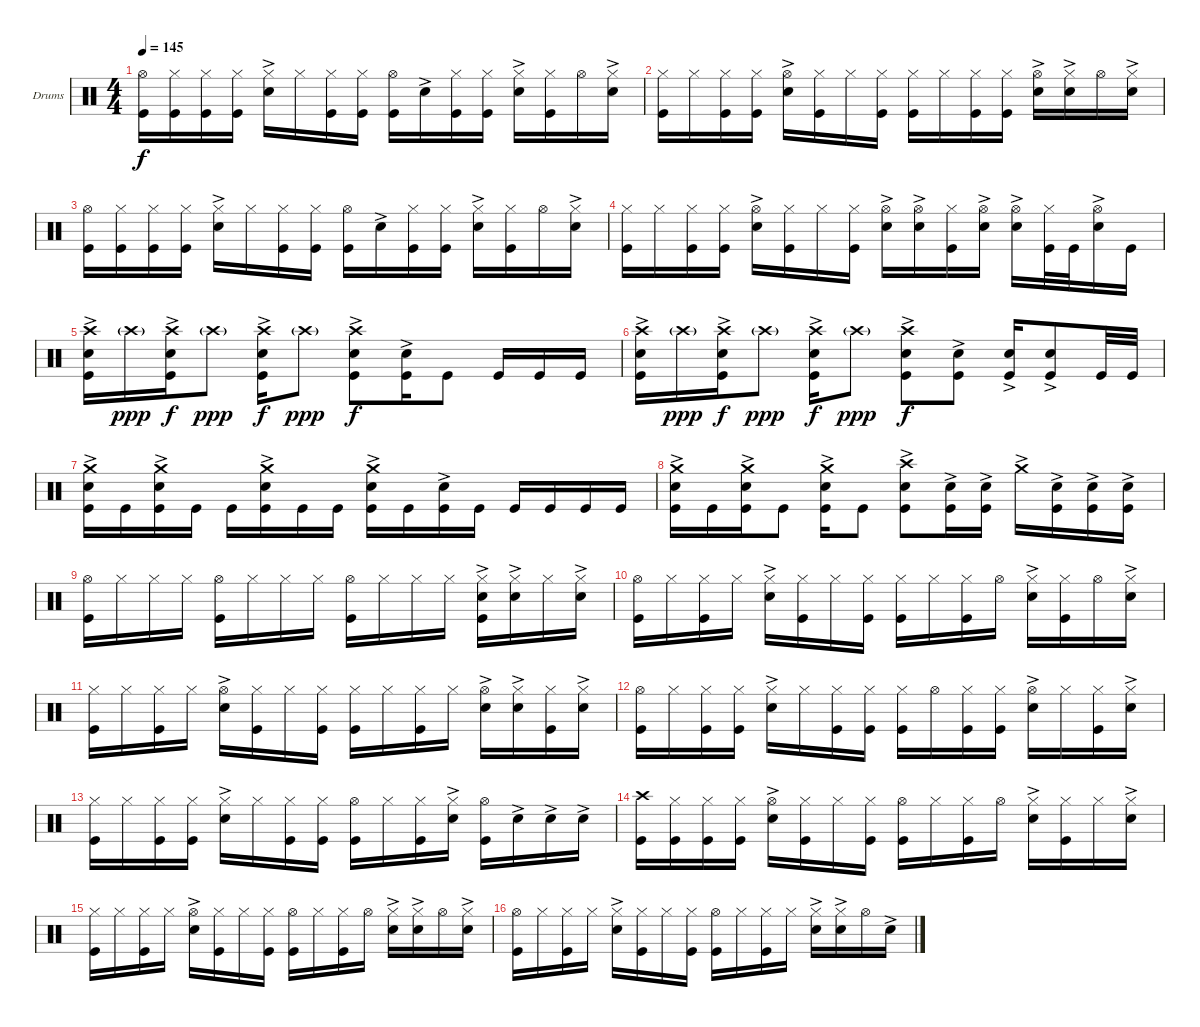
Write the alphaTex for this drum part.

\defaultSystemsLayout 4
\bracketExtendMode groupsimilarinstruments
\firstSystemTrackNameOrientation horizontal
\otherSystemsTrackNameOrientation horizontal
\track ("Drumkit" "Drums") {instrument percussion}
\staff {score}
\articulation defaults
\ts (4 4)
\tempo 145
\clef neutral
\ks c
("Kick (hit)" "Hi-Hat (open)").16{dy f} ("Hi-Hat (closed)" "Kick (hit)").16 ("Kick (hit)" "Hi-Hat (closed)").16 ("Kick (hit)" "Hi-Hat (closed)").16 ("Snare (hit) 2"{ac} "Hi-Hat (closed)").16 "Hi-Hat (closed)".16 ("Hi-Hat (closed)" "Kick (hit)").16 ("Kick (hit)" "Hi-Hat (closed)").16 ("Kick (hit)" "Hi-Hat (open)").16 "Snare (hit) 2"{ac}.16 ("Kick (hit)" "Hi-Hat (closed)").16 ("Kick (hit)" "Hi-Hat (closed)").16 ("Snare (hit) 2"{ac} "Hi-Hat (closed)").16 ("Kick (hit)" "Hi-Hat (closed)").16 "Hi-Hat (open)".16 ("Snare (hit) 2"{ac} "Hi-Hat (closed)").16 |
("Kick (hit)" "Hi-Hat (closed)").16 "Hi-Hat (closed)".16 ("Kick (hit)" "Hi-Hat (closed)").16 ("Kick (hit)" "Hi-Hat (closed)").16 ("Snare (hit) 2"{ac} "Hi-Hat (open)").16 ("Kick (hit)" "Hi-Hat (closed)").16 "Hi-Hat (closed)".16 ("Kick (hit)" "Hi-Hat (closed)").16 ("Kick (hit)" "Hi-Hat (closed)").16 "Hi-Hat (closed)".16 ("Kick (hit)" "Hi-Hat (closed)").16 ("Kick (hit)" "Hi-Hat (closed)").16 ("Snare (hit) 2"{ac} "Hi-Hat (open)").16 ("Hi-Hat (closed)" "Snare (hit) 2"{ac}).16 "Hi-Hat (open)".16 ("Snare (hit) 2"{ac} "Hi-Hat (closed)").16 |
("Kick (hit)" "Hi-Hat (open)").16 ("Hi-Hat (closed)" "Kick (hit)").16 ("Kick (hit)" "Hi-Hat (closed)").16 ("Kick (hit)" "Hi-Hat (closed)").16 ("Snare (hit) 2"{ac} "Hi-Hat (closed)").16 "Hi-Hat (closed)".16 ("Hi-Hat (closed)" "Kick (hit)").16 ("Kick (hit)" "Hi-Hat (closed)").16 ("Kick (hit)" "Hi-Hat (open)").16 "Snare (hit) 2"{ac}.16 ("Kick (hit)" "Hi-Hat (closed)").16 ("Kick (hit)" "Hi-Hat (closed)").16 ("Snare (hit) 2"{ac} "Hi-Hat (closed)").16 ("Kick (hit)" "Hi-Hat (closed)").16 "Hi-Hat (open)".16 ("Snare (hit) 2"{ac} "Hi-Hat (closed)").16 |
("Kick (hit)" "Hi-Hat (closed)").16 "Hi-Hat (closed)".16 ("Kick (hit)" "Hi-Hat (closed)").16 ("Kick (hit)" "Hi-Hat (closed)").16 ("Snare (hit) 2"{ac} "Hi-Hat (open)").16 ("Kick (hit)" "Hi-Hat (closed)").16 "Hi-Hat (closed)".16 ("Kick (hit)" "Hi-Hat (closed)").16 ("Hi-Hat (open)" "Snare (hit) 2"{ac}).16 ("Snare (hit) 2"{ac} "Hi-Hat (open)").16 ("Kick (hit)" "Hi-Hat (closed)").16 ("Hi-Hat (open)" "Snare (hit) 2"{ac}).16 ("Snare (hit) 2"{ac} "Hi-Hat (open)").16 ("Hi-Hat (closed)" "Kick (hit)").32 "Kick (hit)".32 ("Snare (hit) 2"{ac} "Hi-Hat (open)").16 "Kick (hit)".16 |
("Snare (hit) 2"{ac} "Crash high (hit)" "Kick (hit)").16 "Crash high (hit)"{g}.16{dy ppp} ("Snare (hit) 2"{ac} "Crash high (hit)" "Kick (hit)").16{dy f} "Crash high (hit)"{g}.8{dy ppp} ("Snare (hit) 2"{ac} "Crash high (hit)" "Kick (hit)").16{dy f} "Crash high (hit)"{g}.8{dy ppp} ("Snare (hit) 2"{ac} "Crash high (hit)" "Kick (hit)").8{dy f} ("Snare (hit) 2"{ac} "Kick (hit)").16 "Kick (hit)".8 "Kick (hit)".16 "Kick (hit)".16 "Kick (hit)".16 |
("Snare (hit) 2"{ac} "Crash high (hit)" "Kick (hit)").16 "Crash high (hit)"{g}.16{dy ppp} ("Snare (hit) 2"{ac} "Crash high (hit)" "Kick (hit)").16{dy f} "Crash high (hit)"{g}.8{dy ppp} ("Snare (hit) 2"{ac} "Crash high (hit)" "Kick (hit)").16{dy f} "Crash high (hit)"{g}.8{dy ppp} ("Snare (hit) 2"{ac} "Crash high (hit)" "Kick (hit)").8{dy f} ("Snare (hit) 2"{ac} "Kick (hit)").8 ("Snare (hit) 2"{ac} "Kick (hit)").16 ("Snare (hit) 2"{ac} "Kick (hit)").8 "Kick (hit)".32 "Kick (hit)".32 |
("Snare (hit) 2"{ac} "Kick (hit)" "Crash medium (hit)").16 "Kick (hit)".16 ("Snare (hit) 2"{ac} "Kick (hit)" "Crash medium (hit)").16 "Kick (hit)".16 "Kick (hit)".16 ("Snare (hit) 2"{ac} "Kick (hit)" "Crash medium (hit)").16 "Kick (hit)".16 "Kick (hit)".16 ("Snare (hit) 2"{ac} "Kick (hit)" "Crash medium (hit)").16 "Kick (hit)".16 ("Snare (hit) 2"{ac} "Kick (hit)").16 "Kick (hit)".16 "Kick (hit)".16 "Kick (hit)".16 "Kick (hit)".16 "Kick (hit)".16 |
("Snare (hit) 2"{ac} "Kick (hit)" "Crash medium (hit)").16 "Kick (hit)".16 ("Snare (hit) 2"{ac} "Kick (hit)" "Crash medium (hit)").16 "Kick (hit)".8 ("Snare (hit) 2"{ac} "Kick (hit)" "Crash medium (hit)").16 "Kick (hit)".8 ("Snare (hit) 2"{ac} "Kick (hit)" "Crash high (hit)").8 ("Snare (hit) 2"{ac} "Kick (hit)").16 ("Snare (hit) 2"{ac} "Kick (hit)").16 "Crash medium (hit)"{ac}.16 ("Snare (hit) 2"{ac} "Kick (hit)").16 ("Snare (hit) 2"{ac} "Kick (hit)").16 ("Snare (hit) 2"{ac} "Kick (hit)").16 |
("Hi-Hat (open)" "Kick (hit)").16 "Hi-Hat (closed)".16 "Hi-Hat (closed)".16 "Hi-Hat (closed)".16 ("Hi-Hat (open)" "Kick (hit)").16 "Hi-Hat (closed)".16 "Hi-Hat (closed)".16 "Hi-Hat (closed)".16 ("Hi-Hat (open)" "Kick (hit)").16 "Hi-Hat (closed)".16 "Hi-Hat (closed)".16 "Hi-Hat (closed)".16 ("Hi-Hat (closed)" "Kick (hit)" "Snare (hit) 2"{ac}).16 ("Hi-Hat (closed)" "Snare (hit) 2"{ac}).16 "Hi-Hat (closed)".16 ("Hi-Hat (closed)" "Snare (hit) 2"{ac}).16 |
("Hi-Hat (open)" "Kick (hit)").16 "Hi-Hat (closed)".16 ("Hi-Hat (closed)" "Kick (hit)").16 "Hi-Hat (closed)".16 ("Hi-Hat (closed)" "Snare (hit) 2"{ac}).16 ("Hi-Hat (closed)" "Kick (hit)").16 "Hi-Hat (closed)".16 ("Hi-Hat (closed)" "Kick (hit)").16 ("Hi-Hat (closed)" "Kick (hit)").16 "Hi-Hat (closed)".16 ("Hi-Hat (closed)" "Kick (hit)").16 "Hi-Hat (open)".16 ("Hi-Hat (closed)" "Snare (hit) 2"{ac}).16 ("Hi-Hat (closed)" "Kick (hit)").16 "Hi-Hat (open)".16 ("Hi-Hat (closed)" "Snare (hit) 2"{ac}).16 |
("Hi-Hat (closed)" "Kick (hit)").16 "Hi-Hat (closed)".16 ("Hi-Hat (closed)" "Kick (hit)").16 "Hi-Hat (closed)".16 ("Hi-Hat (open)" "Snare (hit) 2"{ac}).16 ("Hi-Hat (closed)" "Kick (hit)").16 "Hi-Hat (closed)".16 ("Hi-Hat (closed)" "Kick (hit)").16 ("Hi-Hat (closed)" "Kick (hit)").16 "Hi-Hat (closed)".16 ("Hi-Hat (closed)" "Kick (hit)").16 "Hi-Hat (closed)".16 ("Hi-Hat (open)" "Snare (hit) 2"{ac}).16 ("Hi-Hat (closed)" "Snare (hit) 2"{ac}).16 ("Hi-Hat (closed)" "Kick (hit)").16 ("Hi-Hat (closed)" "Snare (hit) 2"{ac}).16 |
("Hi-Hat (open)" "Kick (hit)").16 "Hi-Hat (closed)".16 ("Hi-Hat (closed)" "Kick (hit)").16 ("Hi-Hat (closed)" "Kick (hit)").16 ("Hi-Hat (closed)" "Snare (hit) 2"{ac}).16 "Hi-Hat (closed)".16 ("Hi-Hat (closed)" "Kick (hit)").16 ("Hi-Hat (closed)" "Kick (hit)").16 ("Hi-Hat (closed)" "Kick (hit)").16 "Hi-Hat (open)".16 ("Hi-Hat (closed)" "Kick (hit)").16 ("Hi-Hat (closed)" "Kick (hit)").16 ("Hi-Hat (open)" "Snare (hit) 2"{ac}).16 "Hi-Hat (closed)".16 ("Hi-Hat (closed)" "Kick (hit)").16 ("Hi-Hat (closed)" "Snare (hit) 2"{ac}).16 |
("Hi-Hat (closed)" "Kick (hit)").16 "Hi-Hat (closed)".16 ("Hi-Hat (closed)" "Kick (hit)").16 ("Hi-Hat (closed)" "Kick (hit)").16 ("Hi-Hat (closed)" "Snare (hit) 2"{ac}).16 "Hi-Hat (closed)".16 ("Hi-Hat (closed)" "Kick (hit)").16 ("Hi-Hat (closed)" "Kick (hit)").16 ("Hi-Hat (open)" "Kick (hit)").16 "Hi-Hat (closed)".16 ("Hi-Hat (closed)" "Kick (hit)").16 ("Hi-Hat (closed)" "Snare (hit) 2"{ac}).16 ("Hi-Hat (open)" "Kick (hit)").16 "Snare (hit) 2"{ac}.16 "Snare (hit) 2"{ac}.16 "Snare (hit) 2"{ac}.16 |
("Kick (hit)" "Crash high (hit)").16 ("Hi-Hat (closed)" "Kick (hit)").16 ("Hi-Hat (closed)" "Kick (hit)").16 ("Hi-Hat (closed)" "Kick (hit)").16 ("Hi-Hat (open)" "Snare (hit) 2"{ac}).16 ("Hi-Hat (closed)" "Kick (hit)").16 "Hi-Hat (closed)".16 ("Hi-Hat (closed)" "Kick (hit)").16 ("Hi-Hat (open)" "Kick (hit)").16 "Hi-Hat (closed)".16 ("Hi-Hat (closed)" "Kick (hit)").16 "Hi-Hat (open)".16 ("Hi-Hat (closed)" "Snare (hit) 2"{ac}).16 ("Hi-Hat (closed)" "Kick (hit)").16 "Hi-Hat (closed)".16 ("Hi-Hat (closed)" "Snare (hit) 2"{ac}).16 |
("Hi-Hat (closed)" "Kick (hit)").16 "Hi-Hat (closed)".16 ("Hi-Hat (closed)" "Kick (hit)").16 "Hi-Hat (closed)".16 ("Hi-Hat (open)" "Snare (hit) 2"{ac}).16 ("Hi-Hat (closed)" "Kick (hit)").16 "Hi-Hat (closed)".16 ("Hi-Hat (closed)" "Kick (hit)").16 ("Hi-Hat (open)" "Kick (hit)").16 "Hi-Hat (closed)".16 ("Hi-Hat (closed)" "Kick (hit)").16 "Hi-Hat (open)".16 ("Hi-Hat (closed)" "Snare (hit) 2"{ac}).16 ("Hi-Hat (closed)" "Snare (hit) 2"{ac}).16 "Hi-Hat (open)".16 ("Hi-Hat (closed)" "Snare (hit) 2"{ac}).16 |
("Hi-Hat (open)" "Kick (hit)").16 "Hi-Hat (closed)".16 ("Hi-Hat (closed)" "Kick (hit)").16 "Hi-Hat (closed)".16 ("Hi-Hat (closed)" "Snare (hit) 2"{ac}).16 ("Hi-Hat (closed)" "Kick (hit)").16 "Hi-Hat (closed)".16 ("Hi-Hat (closed)" "Kick (hit)").16 ("Hi-Hat (open)" "Kick (hit)").16 "Hi-Hat (closed)".16 ("Hi-Hat (closed)" "Kick (hit)").16 "Hi-Hat (closed)".16 ("Hi-Hat (closed)" "Snare (hit) 2"{ac}).16 ("Hi-Hat (closed)" "Snare (hit) 2"{ac}).16 "Hi-Hat (open)".16 "Snare (hit) 2"{ac}.16
